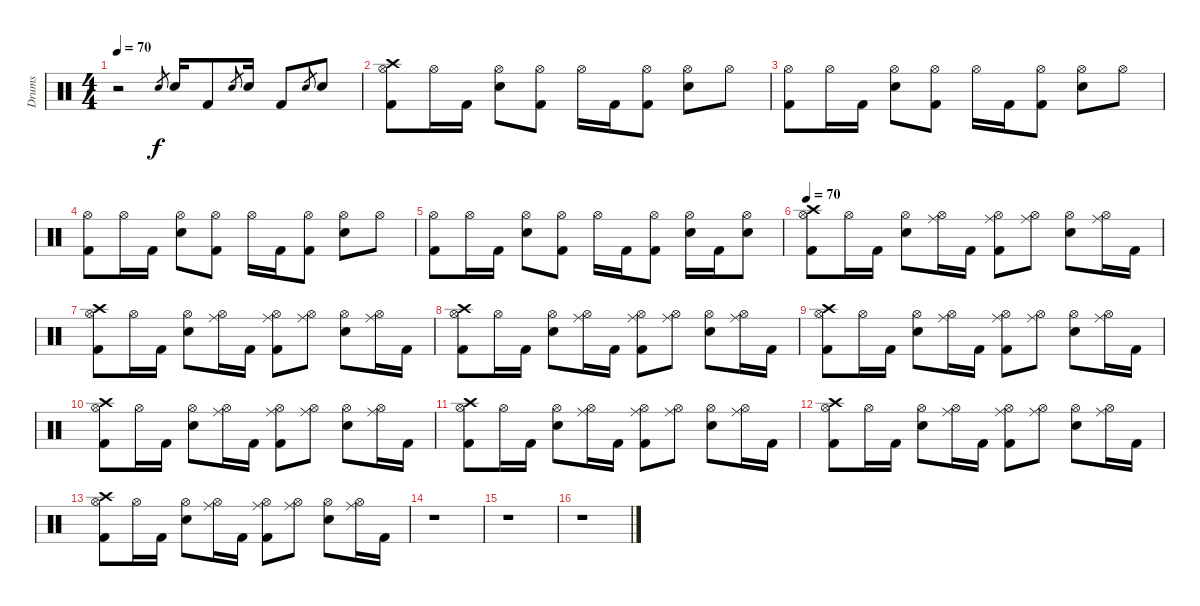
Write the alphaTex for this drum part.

\track ("Drums" "Drums") {instrument percussion}
\staff {score}
\articulation defaults
\ts (4 4)
\tempo 70
\clef neutral
\ks c
r.2{dy f} "Snare (hit) 2".8{gr} "Snare (hit) 2".16 "Kick (hit) 2".8 "Snare (hit) 2".8{gr} "Snare (hit) 2".16 "Kick (hit) 2".8 "Snare (hit) 2".8{gr} "Snare (hit) 2".8 |
("Kick (hit) 2" "Hi-Hat (open)" "Crash high (hit)").8 "Hi-Hat (open)".16 "Kick (hit) 2".16 ("Snare (hit) 2" "Hi-Hat (open)").8 ("Kick (hit) 2" "Hi-Hat (open)").8 "Hi-Hat (open)".16 "Kick (hit) 2".16 ("Kick (hit) 2" "Hi-Hat (open)").8 ("Snare (hit) 2" "Hi-Hat (open)").8 "Hi-Hat (open)".8 |
("Kick (hit) 2" "Hi-Hat (open)").8 "Hi-Hat (open)".16 "Kick (hit) 2".16 ("Snare (hit) 2" "Hi-Hat (open)").8 ("Kick (hit) 2" "Hi-Hat (open)").8 "Hi-Hat (open)".16 "Kick (hit) 2".16 ("Kick (hit) 2" "Hi-Hat (open)").8 ("Snare (hit) 2" "Hi-Hat (open)").8 "Hi-Hat (open)".8 |
("Kick (hit) 2" "Hi-Hat (open)").8 "Hi-Hat (open)".16 "Kick (hit) 2".16 ("Snare (hit) 2" "Hi-Hat (open)").8 ("Kick (hit) 2" "Hi-Hat (open)").8 "Hi-Hat (open)".16 "Kick (hit) 2".16 ("Kick (hit) 2" "Hi-Hat (open)").8 ("Snare (hit) 2" "Hi-Hat (open)").8 "Hi-Hat (open)".8 |
("Kick (hit) 2" "Hi-Hat (open)").8 "Hi-Hat (open)".16 "Kick (hit) 2".16 ("Snare (hit) 2" "Hi-Hat (open)").8 ("Kick (hit) 2" "Hi-Hat (open)").8 "Hi-Hat (open)".16 "Kick (hit) 2".16 ("Kick (hit) 2" "Hi-Hat (open)").8 ("Snare (hit) 2" "Hi-Hat (open)").16 "Kick (hit) 2".16 ("Snare (hit) 2" "Hi-Hat (open)").8 |
\tempo 70
("Kick (hit) 2" "Hi-Hat (open)" "Crash high (hit)").8 "Hi-Hat (open)".16 "Kick (hit) 2".16 ("Snare (hit) 2" "Hi-Hat (open)").8 ("Hi-Hat (open)" "Ride (middle)").16 "Kick (hit) 2".16 ("Kick (hit) 2" "Hi-Hat (open)" "Ride (middle)").8 ("Hi-Hat (open)" "Ride (middle)").8 ("Snare (hit) 2" "Hi-Hat (open)").8 ("Hi-Hat (open)" "Ride (middle)").16 "Kick (hit) 2".16 |
("Kick (hit) 2" "Hi-Hat (open)" "Crash high (hit)").8 "Hi-Hat (open)".16 "Kick (hit) 2".16 ("Snare (hit) 2" "Hi-Hat (open)").8 ("Hi-Hat (open)" "Ride (middle)").16 "Kick (hit) 2".16 ("Kick (hit) 2" "Hi-Hat (open)" "Ride (middle)").8 ("Hi-Hat (open)" "Ride (middle)").8 ("Snare (hit) 2" "Hi-Hat (open)").8 ("Hi-Hat (open)" "Ride (middle)").16 "Kick (hit) 2".16 |
("Kick (hit) 2" "Hi-Hat (open)" "Crash high (hit)").8 "Hi-Hat (open)".16 "Kick (hit) 2".16 ("Snare (hit) 2" "Hi-Hat (open)").8 ("Hi-Hat (open)" "Ride (middle)").16 "Kick (hit) 2".16 ("Kick (hit) 2" "Hi-Hat (open)" "Ride (middle)").8 ("Hi-Hat (open)" "Ride (middle)").8 ("Snare (hit) 2" "Hi-Hat (open)").8 ("Hi-Hat (open)" "Ride (middle)").16 "Kick (hit) 2".16 |
("Kick (hit) 2" "Hi-Hat (open)" "Crash high (hit)").8 "Hi-Hat (open)".16 "Kick (hit) 2".16 ("Snare (hit) 2" "Hi-Hat (open)").8 ("Hi-Hat (open)" "Ride (middle)").16 "Kick (hit) 2".16 ("Kick (hit) 2" "Hi-Hat (open)" "Ride (middle)").8 ("Hi-Hat (open)" "Ride (middle)").8 ("Snare (hit) 2" "Hi-Hat (open)").8 ("Hi-Hat (open)" "Ride (middle)").16 "Kick (hit) 2".16 |
("Kick (hit) 2" "Hi-Hat (open)" "Crash high (hit)").8 "Hi-Hat (open)".16 "Kick (hit) 2".16 ("Snare (hit) 2" "Hi-Hat (open)").8 ("Hi-Hat (open)" "Ride (middle)").16 "Kick (hit) 2".16 ("Kick (hit) 2" "Hi-Hat (open)" "Ride (middle)").8 ("Hi-Hat (open)" "Ride (middle)").8 ("Snare (hit) 2" "Hi-Hat (open)").8 ("Hi-Hat (open)" "Ride (middle)").16 "Kick (hit) 2".16 |
("Kick (hit) 2" "Hi-Hat (open)" "Crash high (hit)").8 "Hi-Hat (open)".16 "Kick (hit) 2".16 ("Snare (hit) 2" "Hi-Hat (open)").8 ("Hi-Hat (open)" "Ride (middle)").16 "Kick (hit) 2".16 ("Kick (hit) 2" "Hi-Hat (open)" "Ride (middle)").8 ("Hi-Hat (open)" "Ride (middle)").8 ("Snare (hit) 2" "Hi-Hat (open)").8 ("Hi-Hat (open)" "Ride (middle)").16 "Kick (hit) 2".16 |
("Kick (hit) 2" "Hi-Hat (open)" "Crash high (hit)").8 "Hi-Hat (open)".16 "Kick (hit) 2".16 ("Snare (hit) 2" "Hi-Hat (open)").8 ("Hi-Hat (open)" "Ride (middle)").16 "Kick (hit) 2".16 ("Kick (hit) 2" "Hi-Hat (open)" "Ride (middle)").8 ("Hi-Hat (open)" "Ride (middle)").8 ("Snare (hit) 2" "Hi-Hat (open)").8 ("Hi-Hat (open)" "Ride (middle)").16 "Kick (hit) 2".16 |
("Kick (hit) 2" "Hi-Hat (open)" "Crash high (hit)").8 "Hi-Hat (open)".16 "Kick (hit) 2".16 ("Snare (hit) 2" "Hi-Hat (open)").8 ("Hi-Hat (open)" "Ride (middle)").16 "Kick (hit) 2".16 ("Kick (hit) 2" "Hi-Hat (open)" "Ride (middle)").8 ("Hi-Hat (open)" "Ride (middle)").8 ("Snare (hit) 2" "Hi-Hat (open)").8 ("Hi-Hat (open)" "Ride (middle)").16 "Kick (hit) 2".16 |
r.1 |
r.1 |
r.1
